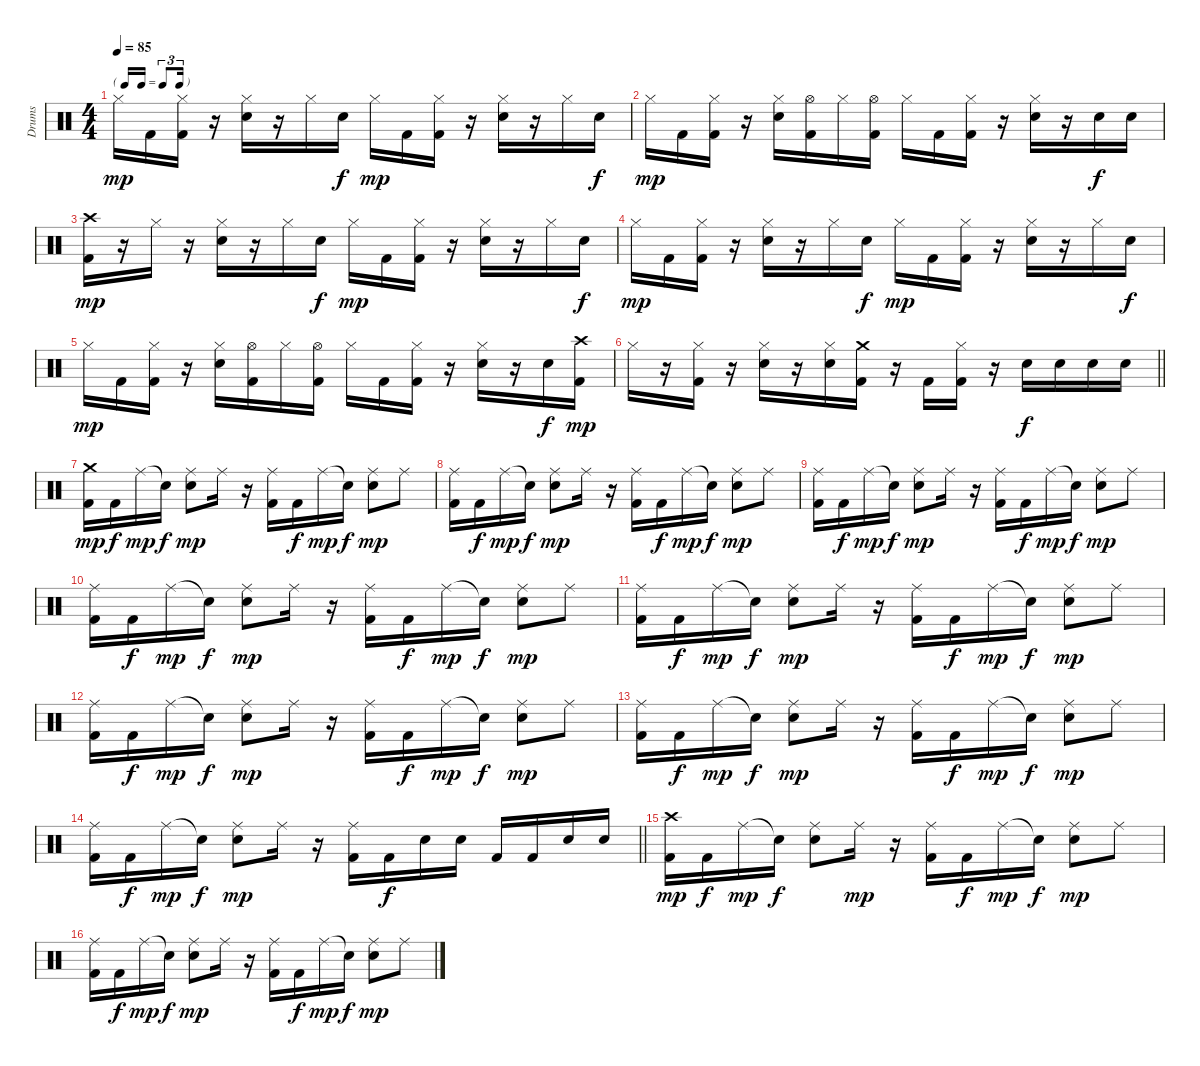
\track ("Drums" "Drums") {instrument percussion}
\staff {score}
\articulation defaults
\ts (4 4)
\tf triplet16th
\tempo 85
\clef neutral
\ks c "Hi-Hat (closed)".16{dy mp} "Kick (hit) 2".16
("Hi-Hat (closed)" "Kick (hit) 2").16 r.16 ("Hi-Hat (closed)" "Electric Snare (hit)").16 r.16 "Hi-Hat (closed)".16 "Electric Snare (hit)".16{dy f} "Hi-Hat (closed)".16{dy mp} "Kick (hit) 2".16 ("Hi-Hat (closed)" "Kick (hit) 2").16 r.16 ("Hi-Hat (closed)" "Electric Snare (hit)").16 r.16 "Hi-Hat (closed)".16 "Electric Snare (hit)".16{dy f} |
"Hi-Hat (closed)".16{dy mp} "Kick (hit) 2".16 ("Hi-Hat (closed)" "Kick (hit) 2").16 r.16 ("Hi-Hat (closed)" "Electric Snare (hit)").16 ("Hi-Hat (open)" "Kick (hit) 2").16 "Hi-Hat (closed)".16 ("Hi-Hat (open)" "Kick (hit) 2").16 "Hi-Hat (closed)".16 "Kick (hit) 2".16 ("Hi-Hat (closed)" "Kick (hit) 2").16 r.16 ("Hi-Hat (closed)" "Electric Snare (hit)").16 r.16 "Electric Snare (hit)".16{dy f} "Electric Snare (hit)".16 |
("Crash high (hit)" "Kick (hit) 2").16{dy mp} r.16 "Hi-Hat (closed)".16 r.16 ("Hi-Hat (closed)" "Electric Snare (hit)").16 r.16 "Hi-Hat (closed)".16 "Electric Snare (hit)".16{dy f} "Hi-Hat (closed)".16{dy mp} "Kick (hit) 2".16 ("Hi-Hat (closed)" "Kick (hit) 2").16 r.16 ("Hi-Hat (closed)" "Electric Snare (hit)").16 r.16 "Hi-Hat (closed)".16 "Electric Snare (hit)".16{dy f} |
"Hi-Hat (closed)".16{dy mp} "Kick (hit) 2".16 ("Hi-Hat (closed)" "Kick (hit) 2").16 r.16 ("Hi-Hat (closed)" "Electric Snare (hit)").16 r.16 "Hi-Hat (closed)".16 "Electric Snare (hit)".16{dy f} "Hi-Hat (closed)".16{dy mp} "Kick (hit) 2".16 ("Hi-Hat (closed)" "Kick (hit) 2").16 r.16 ("Hi-Hat (closed)" "Electric Snare (hit)").16 r.16 "Hi-Hat (closed)".16 "Electric Snare (hit)".16{dy f} |
"Hi-Hat (closed)".16{dy mp} "Kick (hit) 2".16 ("Hi-Hat (closed)" "Kick (hit) 2").16 r.16 ("Hi-Hat (closed)" "Electric Snare (hit)").16 ("Hi-Hat (open)" "Kick (hit) 2").16 "Hi-Hat (closed)".16 ("Hi-Hat (open)" "Kick (hit) 2").16 "Hi-Hat (closed)".16 "Kick (hit) 2".16 ("Hi-Hat (closed)" "Kick (hit) 2").16 r.16 ("Hi-Hat (closed)" "Electric Snare (hit)").16 r.16 "Electric Snare (hit)".16{dy f} ("Crash high (hit)" "Kick (hit) 2").16{dy mp} |
\barLineRight lightlight "Hi-Hat (closed)".16
r.16 ("Hi-Hat (closed)" "Kick (hit) 2").16 r.16 ("Hi-Hat (closed)" "Electric Snare (hit)").16 r.16 ("Hi-Hat (closed)" "Electric Snare (hit)").16 ("Crash medium (hit)" "Kick (hit) 2").16 r.16 "Kick (hit) 2".16 ("Hi-Hat (closed)" "Kick (hit) 2").16 r.16 "Electric Snare (hit)".16{dy f} "Electric Snare (hit)".16 "Electric Snare (hit)".16 "Electric Snare (hit)".16 |
("Crash medium (hit)" "Kick (hit) 2").16{dy mp} "Kick (hit) 2".16{dy f} "Ride (middle)".16{dy mp} "Snare (hit)"{t}.16{dy f} ("Ride (middle)" "Electric Snare (hit)").8{dy mp} "Ride (middle)".16 r.16 ("Ride (middle)" "Kick (hit) 2").16 "Kick (hit) 2".16{dy f} "Ride (middle)".16{dy mp} "Snare (hit)"{t}.16{dy f} ("Ride (middle)" "Electric Snare (hit)").8{dy mp} "Ride (middle)".8 |
("Ride (middle)" "Kick (hit) 2").16 "Kick (hit) 2".16{dy f} "Ride (middle)".16{dy mp} "Snare (hit)"{t}.16{dy f} ("Ride (middle)" "Electric Snare (hit)").8{dy mp} "Ride (middle)".16 r.16 ("Ride (middle)" "Kick (hit) 2").16 "Kick (hit) 2".16{dy f} "Ride (middle)".16{dy mp} "Snare (hit)"{t}.16{dy f} ("Ride (middle)" "Electric Snare (hit)").8{dy mp} "Ride (middle)".8 |
("Ride (middle)" "Kick (hit) 2").16 "Kick (hit) 2".16{dy f} "Ride (middle)".16{dy mp} "Snare (hit)"{t}.16{dy f} ("Ride (middle)" "Electric Snare (hit)").8{dy mp} "Ride (middle)".16 r.16 ("Ride (middle)" "Kick (hit) 2").16 "Kick (hit) 2".16{dy f} "Ride (middle)".16{dy mp} "Snare (hit)"{t}.16{dy f} ("Ride (middle)" "Electric Snare (hit)").8{dy mp} "Ride (middle)".8 |
("Ride (middle)" "Kick (hit) 2").16 "Kick (hit) 2".16{dy f} "Ride (middle)".16{dy mp} "Snare (hit)"{t}.16{dy f} ("Ride (middle)" "Electric Snare (hit)").8{dy mp} "Ride (middle)".16 r.16 ("Ride (middle)" "Kick (hit) 2").16 "Kick (hit) 2".16{dy f} "Ride (middle)".16{dy mp} "Snare (hit)"{t}.16{dy f} ("Ride (middle)" "Electric Snare (hit)").8{dy mp} "Ride (middle)".8 |
("Ride (middle)" "Kick (hit) 2").16 "Kick (hit) 2".16{dy f} "Ride (middle)".16{dy mp} "Snare (hit)"{t}.16{dy f} ("Ride (middle)" "Electric Snare (hit)").8{dy mp} "Ride (middle)".16 r.16 ("Ride (middle)" "Kick (hit) 2").16 "Kick (hit) 2".16{dy f} "Ride (middle)".16{dy mp} "Snare (hit)"{t}.16{dy f} ("Ride (middle)" "Electric Snare (hit)").8{dy mp} "Ride (middle)".8 |
("Ride (middle)" "Kick (hit) 2").16 "Kick (hit) 2".16{dy f} "Ride (middle)".16{dy mp} "Snare (hit)"{t}.16{dy f} ("Ride (middle)" "Electric Snare (hit)").8{dy mp} "Ride (middle)".16 r.16 ("Ride (middle)" "Kick (hit) 2").16 "Kick (hit) 2".16{dy f} "Ride (middle)".16{dy mp} "Snare (hit)"{t}.16{dy f} ("Ride (middle)" "Electric Snare (hit)").8{dy mp} "Ride (middle)".8 |
("Ride (middle)" "Kick (hit) 2").16 "Kick (hit) 2".16{dy f} "Ride (middle)".16{dy mp} "Snare (hit)"{t}.16{dy f} ("Ride (middle)" "Electric Snare (hit)").8{dy mp} "Ride (middle)".16 r.16 ("Ride (middle)" "Kick (hit) 2").16 "Kick (hit) 2".16{dy f} "Ride (middle)".16{dy mp} "Snare (hit)"{t}.16{dy f} ("Ride (middle)" "Electric Snare (hit)").8{dy mp} "Ride (middle)".8 |
\barLineRight lightlight
("Ride (middle)" "Kick (hit) 2").16 "Kick (hit) 2".16{dy f} "Ride (middle)".16{dy mp} "Snare (hit)"{t}.16{dy f} ("Ride (middle)" "Electric Snare (hit)").8{dy mp} "Ride (middle)".16 r.16 ("Ride (middle)" "Kick (hit) 2").16 "Kick (hit) 2".16{dy f} "Electric Snare (hit)".16 "Electric Snare (hit)".16 "Kick (hit) 2".16 "Kick (hit) 2".16 "Electric Snare (hit)".16 "Electric Snare (hit)".16 |
("Crash high (hit)" "Kick (hit) 2").16{dy mp} "Kick (hit) 2".16{dy f} "Ride (middle)".16{dy mp} "Snare (hit)"{t}.16{dy f} ("Ride (middle)" "Electric Snare (hit)").8 "Ride (middle)".16{dy mp} r.16 ("Ride (middle)" "Kick (hit) 2").16 "Kick (hit) 2".16{dy f} "Ride (middle)".16{dy mp} "Snare (hit)"{t}.16{dy f} ("Ride (middle)" "Electric Snare (hit)").8{dy mp} "Ride (middle)".8 |
("Ride (middle)" "Kick (hit) 2").16 "Kick (hit) 2".16{dy f} "Ride (middle)".16{dy mp} "Snare (hit)"{t}.16{dy f} ("Ride (middle)" "Electric Snare (hit)").8{dy mp} "Ride (middle)".16 r.16 ("Ride (middle)" "Kick (hit) 2").16 "Kick (hit) 2".16{dy f} "Ride (middle)".16{dy mp} "Snare (hit)"{t}.16{dy f} ("Ride (middle)" "Electric Snare (hit)").8{dy mp} "Ride (middle)".8
